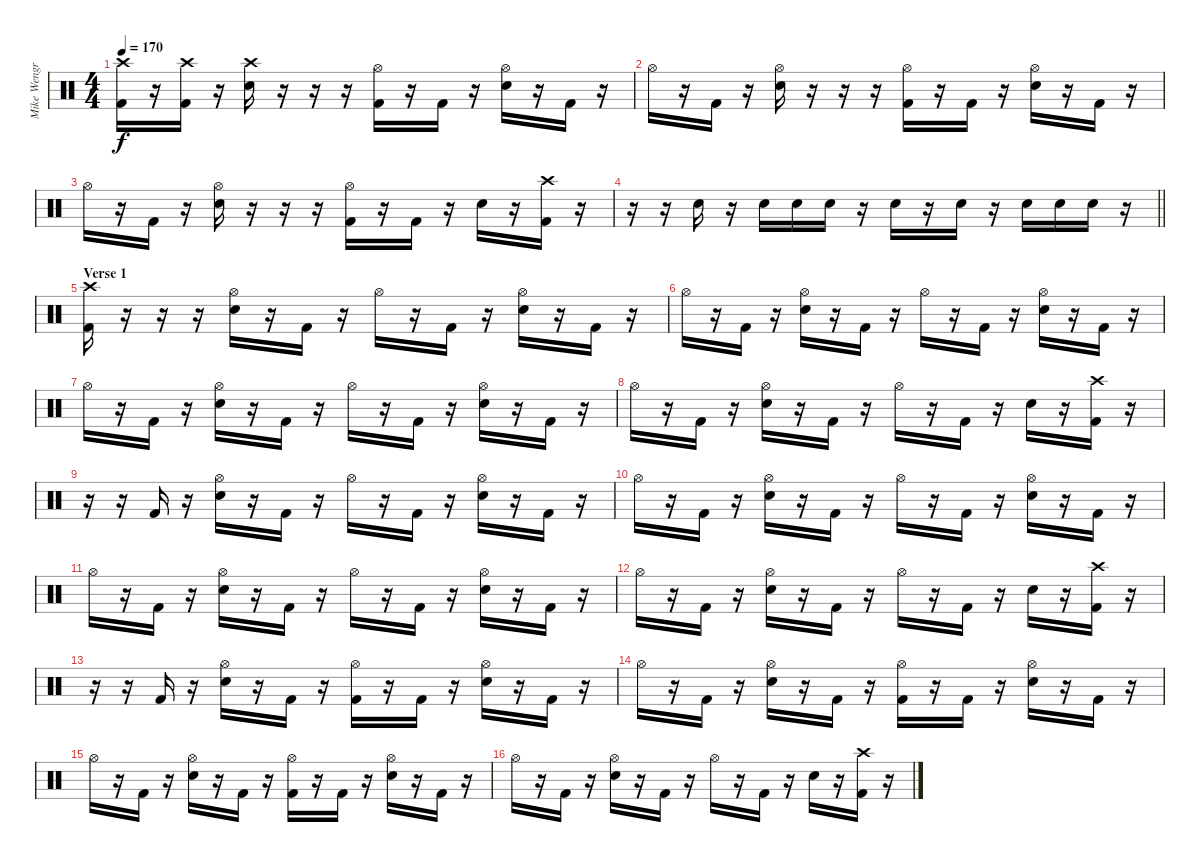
\track ("Mike Wengren" "Mike Wengr") {instrument percussion}
\staff {score}
\articulation defaults
\ts (4 4)
\tempo 170
\clef neutral
\ks c
("Crash high (hit)" "Kick (hit) 2").16{dy f} r.16 ("Crash high (hit)" "Kick (hit) 2").16 r.16 ("Crash high (hit)" "Snare (hit) 2").16 r.16 r.16 r.16 ("Hi-Hat (open)" "Kick (hit) 2").16 r.16 "Kick (hit) 2".16 r.16 ("Hi-Hat (open)" "Snare (hit) 2").16 r.16 "Kick (hit) 2".16 r.16 |
"Hi-Hat (open)".16 r.16 "Kick (hit) 2".16 r.16 ("Hi-Hat (open)" "Snare (hit) 2").16 r.16 r.16 r.16 ("Hi-Hat (open)" "Kick (hit) 2").16 r.16 "Kick (hit) 2".16 r.16 ("Hi-Hat (open)" "Snare (hit) 2").16 r.16 "Kick (hit) 2".16 r.16 |
"Hi-Hat (open)".16 r.16 "Kick (hit) 2".16 r.16 ("Hi-Hat (open)" "Snare (hit) 2").16 r.16 r.16 r.16 ("Hi-Hat (open)" "Kick (hit) 2").16 r.16 "Kick (hit) 2".16 r.16 "Snare (hit) 2".16 r.16 ("Crash high (hit)" "Kick (hit) 2").16 r.16 |
\barLineRight lightlight
r.16 r.16 "Snare (hit) 2".16 r.16 "Snare (hit) 2".16 "Snare (hit) 2".16 "Snare (hit) 2".16 r.16 "Snare (hit) 2".16 r.16 "Snare (hit) 2".16 r.16 "Snare (hit) 2".16 "Snare (hit) 2".16 "Snare (hit) 2".16 r.16 |
\section ("" "Verse 1")
("Crash high (hit)" "Kick (hit) 2").16 r.16 r.16 r.16 ("Hi-Hat (open)" "Snare (hit) 2").16 r.16 "Kick (hit) 2".16 r.16 "Hi-Hat (open)".16 r.16 "Kick (hit) 2".16 r.16 ("Hi-Hat (open)" "Snare (hit) 2").16 r.16 "Kick (hit) 2".16 r.16 |
"Hi-Hat (open)".16 r.16 "Kick (hit) 2".16 r.16 ("Hi-Hat (open)" "Snare (hit) 2").16 r.16 "Kick (hit) 2".16 r.16 "Hi-Hat (open)".16 r.16 "Kick (hit) 2".16 r.16 ("Hi-Hat (open)" "Snare (hit) 2").16 r.16 "Kick (hit) 2".16 r.16 |
"Hi-Hat (open)".16 r.16 "Kick (hit) 2".16 r.16 ("Hi-Hat (open)" "Snare (hit) 2").16 r.16 "Kick (hit) 2".16 r.16 "Hi-Hat (open)".16 r.16 "Kick (hit) 2".16 r.16 ("Hi-Hat (open)" "Snare (hit) 2").16 r.16 "Kick (hit) 2".16 r.16 |
"Hi-Hat (open)".16 r.16 "Kick (hit) 2".16 r.16 ("Hi-Hat (open)" "Snare (hit) 2").16 r.16 "Kick (hit) 2".16 r.16 "Hi-Hat (open)".16 r.16 "Kick (hit) 2".16 r.16 "Snare (hit) 2".16 r.16 ("Crash high (hit)" "Kick (hit) 2").16 r.16 |
r.16 r.16 "Kick (hit) 2".16 r.16 ("Hi-Hat (open)" "Snare (hit) 2").16 r.16 "Kick (hit) 2".16 r.16 "Hi-Hat (open)".16 r.16 "Kick (hit) 2".16 r.16 ("Hi-Hat (open)" "Snare (hit) 2").16 r.16 "Kick (hit) 2".16 r.16 |
"Hi-Hat (open)".16 r.16 "Kick (hit) 2".16 r.16 ("Hi-Hat (open)" "Snare (hit) 2").16 r.16 "Kick (hit) 2".16 r.16 "Hi-Hat (open)".16 r.16 "Kick (hit) 2".16 r.16 ("Hi-Hat (open)" "Snare (hit) 2").16 r.16 "Kick (hit) 2".16 r.16 |
"Hi-Hat (open)".16 r.16 "Kick (hit) 2".16 r.16 ("Hi-Hat (open)" "Snare (hit) 2").16 r.16 "Kick (hit) 2".16 r.16 "Hi-Hat (open)".16 r.16 "Kick (hit) 2".16 r.16 ("Hi-Hat (open)" "Snare (hit) 2").16 r.16 "Kick (hit) 2".16 r.16 |
"Hi-Hat (open)".16 r.16 "Kick (hit) 2".16 r.16 ("Hi-Hat (open)" "Snare (hit) 2").16 r.16 "Kick (hit) 2".16 r.16 "Hi-Hat (open)".16 r.16 "Kick (hit) 2".16 r.16 "Snare (hit) 2".16 r.16 ("Crash high (hit)" "Kick (hit) 2").16 r.16 |
r.16 r.16 "Kick (hit) 2".16 r.16 ("Hi-Hat (open)" "Snare (hit) 2").16 r.16 "Kick (hit) 2".16 r.16 ("Hi-Hat (open)" "Kick (hit) 2").16 r.16 "Kick (hit) 2".16 r.16 ("Hi-Hat (open)" "Snare (hit) 2").16 r.16 "Kick (hit) 2".16 r.16 |
"Hi-Hat (open)".16 r.16 "Kick (hit) 2".16 r.16 ("Hi-Hat (open)" "Snare (hit) 2").16 r.16 "Kick (hit) 2".16 r.16 ("Hi-Hat (open)" "Kick (hit) 2").16 r.16 "Kick (hit) 2".16 r.16 ("Hi-Hat (open)" "Snare (hit) 2").16 r.16 "Kick (hit) 2".16 r.16 |
"Hi-Hat (open)".16 r.16 "Kick (hit) 2".16 r.16 ("Hi-Hat (open)" "Snare (hit) 2").16 r.16 "Kick (hit) 2".16 r.16 ("Hi-Hat (open)" "Kick (hit) 2").16 r.16 "Kick (hit) 2".16 r.16 ("Hi-Hat (open)" "Snare (hit) 2").16 r.16 "Kick (hit) 2".16 r.16 |
"Hi-Hat (open)".16 r.16 "Kick (hit) 2".16 r.16 ("Hi-Hat (open)" "Snare (hit) 2").16 r.16 "Kick (hit) 2".16 r.16 "Hi-Hat (open)".16 r.16 "Kick (hit) 2".16 r.16 "Snare (hit) 2".16 r.16 ("Crash high (hit)" "Kick (hit) 2").16 r.16
